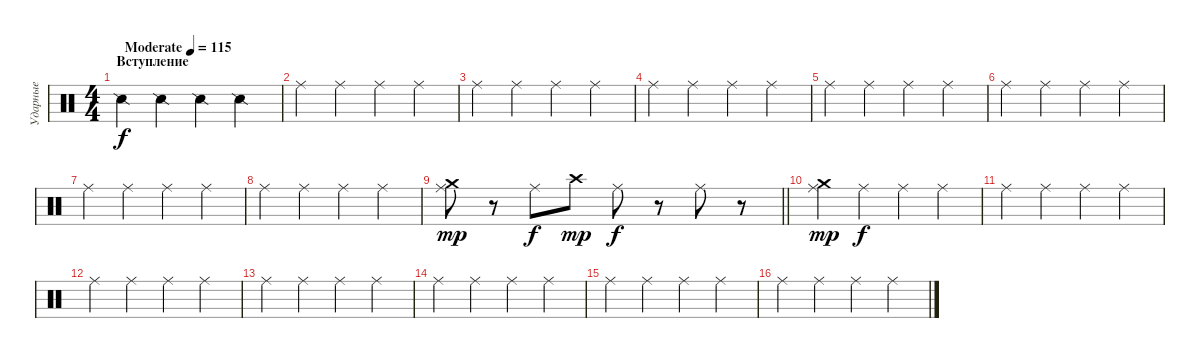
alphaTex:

\track ("Ударные" "Ударные") {instrument percussion}
\staff {score}
\articulation defaults
\ts (4 4)
\section ("" "Вступление")
\tempo (115 "Moderate")
\clef neutral
\ks c "Snare (side stick) 2".4{dy f} "Snare (side stick) 2".4 "Snare (side stick) 2".4 "Snare (side stick) 2".4
|
"Ride (middle)".4 "Ride (middle)".4 "Ride (middle)".4 "Ride (middle)".4 |
"Ride (middle)".4 "Ride (middle)".4 "Ride (middle)".4 "Ride (middle)".4 |
"Ride (middle)".4 "Ride (middle)".4 "Ride (middle)".4 "Ride (middle)".4 |
"Ride (middle)".4 "Ride (middle)".4 "Ride (middle)".4 "Ride (middle)".4 |
"Ride (middle)".4 "Ride (middle)".4 "Ride (middle)".4 "Ride (middle)".4 |
"Ride (middle)".4 "Ride (middle)".4 "Ride (middle)".4 "Ride (middle)".4 |
"Ride (middle)".4 "Ride (middle)".4 "Ride (middle)".4 "Ride (middle)".4 |
\barLineRight lightlight
("Ride (middle)" "Crash medium (hit)").8{dy mp} r.8 "Ride (middle)".8{dy f} "Crash high (hit)".8{dy mp} "Ride (middle)".8{dy f} r.8 "Ride (middle)".8 r.8 |
\section ("" " ")
("Ride (middle)" "Crash medium (hit)").4{dy mp} "Ride (middle)".4{dy f} "Ride (middle)".4 "Ride (middle)".4 |
"Ride (middle)".4 "Ride (middle)".4 "Ride (middle)".4 "Ride (middle)".4 |
"Ride (middle)".4 "Ride (middle)".4 "Ride (middle)".4 "Ride (middle)".4 |
"Ride (middle)".4 "Ride (middle)".4 "Ride (middle)".4 "Ride (middle)".4 |
"Ride (middle)".4 "Ride (middle)".4 "Ride (middle)".4 "Ride (middle)".4 |
"Ride (middle)".4 "Ride (middle)".4 "Ride (middle)".4 "Ride (middle)".4 |
"Ride (middle)".4 "Ride (middle)".4 "Ride (middle)".4 "Ride (middle)".4
